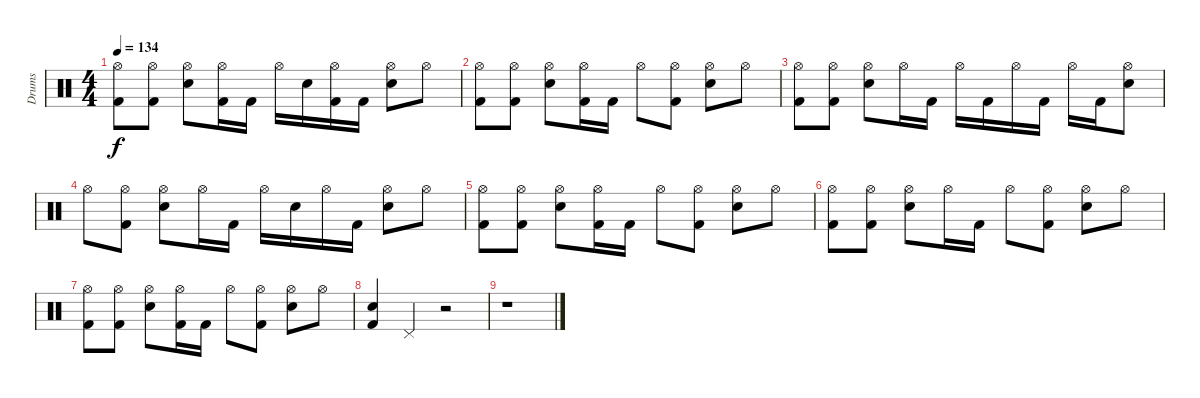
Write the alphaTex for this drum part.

\track ("Drums" "Drums") {instrument percussion}
\staff {score}
\articulation defaults
\ts (4 4)
\tempo 134
\clef neutral
\ks c
("Hi-Hat (open)" "Kick (hit) 2").8{dy f} ("Hi-Hat (open)" "Kick (hit) 2").8 ("Hi-Hat (open)" "Electric Snare (hit)").8 ("Hi-Hat (open)" "Kick (hit) 2").16 "Kick (hit) 2".16 "Hi-Hat (open)".16 "Electric Snare (hit)".16 ("Hi-Hat (open)" "Kick (hit) 2").16 "Kick (hit) 2".16 ("Hi-Hat (open)" "Electric Snare (hit)").8 "Hi-Hat (open)".8 |
("Hi-Hat (open)" "Kick (hit) 2").8 ("Hi-Hat (open)" "Kick (hit) 2").8 ("Hi-Hat (open)" "Electric Snare (hit)").8 ("Hi-Hat (open)" "Kick (hit) 2").16 "Kick (hit) 2".16 "Hi-Hat (open)".8 ("Hi-Hat (open)" "Kick (hit) 2").8 ("Hi-Hat (open)" "Electric Snare (hit)").8 "Hi-Hat (open)".8 |
("Hi-Hat (open)" "Kick (hit) 2").8 ("Hi-Hat (open)" "Kick (hit) 2").8 ("Hi-Hat (open)" "Electric Snare (hit)").8 "Hi-Hat (open)".16 "Kick (hit) 2".16 "Hi-Hat (open)".16 "Kick (hit) 2".16 "Hi-Hat (open)".16 "Kick (hit) 2".16 "Hi-Hat (open)".16 "Kick (hit) 2".16 ("Hi-Hat (open)" "Electric Snare (hit)").8 |
"Hi-Hat (open)".8 ("Hi-Hat (open)" "Kick (hit) 2").8 ("Hi-Hat (open)" "Electric Snare (hit)").8 "Hi-Hat (open)".16 "Kick (hit) 2".16 "Hi-Hat (open)".16 "Electric Snare (hit)".16 "Hi-Hat (open)".16 "Kick (hit) 2".16 ("Hi-Hat (open)" "Electric Snare (hit)").8 "Hi-Hat (open)".8 |
("Hi-Hat (open)" "Kick (hit) 2").8 ("Hi-Hat (open)" "Kick (hit) 2").8 ("Hi-Hat (open)" "Electric Snare (hit)").8 ("Hi-Hat (open)" "Kick (hit) 2").16 "Kick (hit) 2".16 "Hi-Hat (open)".8 ("Hi-Hat (open)" "Kick (hit) 2").8 ("Hi-Hat (open)" "Electric Snare (hit)").8 "Hi-Hat (open)".8 |
("Hi-Hat (open)" "Kick (hit) 2").8 ("Hi-Hat (open)" "Kick (hit) 2").8 ("Hi-Hat (open)" "Electric Snare (hit)").8 "Hi-Hat (open)".16 "Kick (hit) 2".16 "Hi-Hat (open)".8 ("Hi-Hat (open)" "Kick (hit) 2").8 ("Hi-Hat (open)" "Electric Snare (hit)").8 "Hi-Hat (open)".8 |
("Hi-Hat (open)" "Kick (hit) 2").8 ("Hi-Hat (open)" "Kick (hit) 2").8 ("Hi-Hat (open)" "Electric Snare (hit)").8 ("Hi-Hat (open)" "Kick (hit) 2").16 "Kick (hit) 2".16 "Hi-Hat (open)".8 ("Hi-Hat (open)" "Kick (hit) 2").8 ("Hi-Hat (open)" "Electric Snare (hit)").8 "Hi-Hat (open)".8 |
("Hand Clap (hit)" "Kick (hit) 2").4 "Pedal Hi-Hat (hit)".4 r.2 |
r.1
